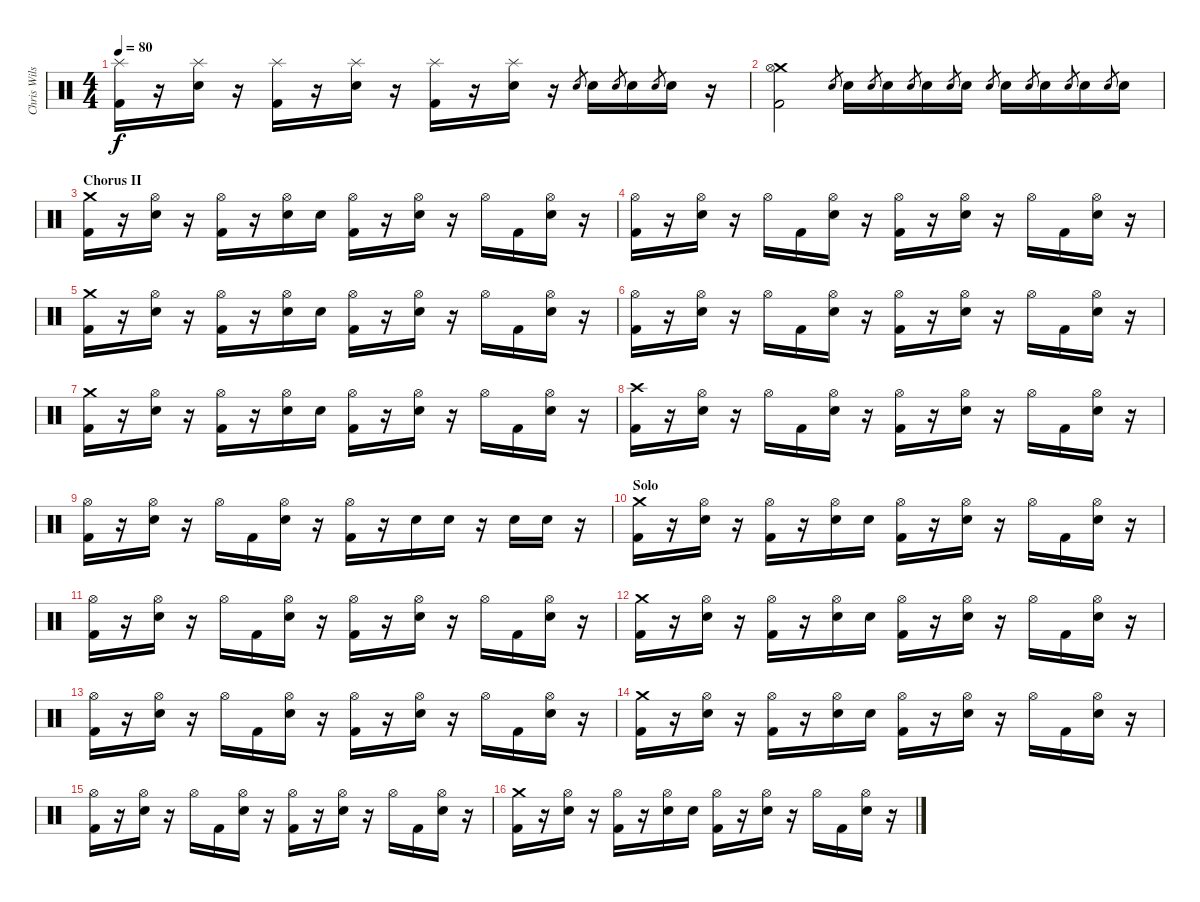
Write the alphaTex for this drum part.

\track ("Chris Wilson - Drums" "Chris Wils") {instrument percussion}
\staff {score}
\articulation defaults
\ts (4 4)
\tempo 80
\clef neutral
\ks c
("Splash (hit)" "Kick (hit) 2").16{dy f} r.16 ("Splash (hit)" "Snare (hit) 2").16 r.16 ("Splash (hit)" "Kick (hit) 2").16 r.16 ("Splash (hit)" "Snare (hit) 2").16 r.16 ("Splash (hit)" "Kick (hit) 2").16 r.16 ("Splash (hit)" "Snare (hit) 2").16 r.16 "Snare (hit) 2".8{gr} "Snare (hit) 2".16 "Snare (hit) 2".8{gr} "Snare (hit) 2".16 "Snare (hit) 2".8{gr} "Snare (hit) 2".16 r.16{volume 6} |
("Crash medium (hit)" "Hi-Hat (open)" "Kick (hit) 2").2{volume 15} "Snare (hit) 2".8{gr} "Snare (hit) 2".16 "Snare (hit) 2".8{gr} "Snare (hit) 2".16 "Snare (hit) 2".8{gr} "Snare (hit) 2".16 "Snare (hit) 2".8{gr} "Snare (hit) 2".16 "Snare (hit) 2".8{gr} "Snare (hit) 2".16 "Snare (hit) 2".8{gr} "Snare (hit) 2".16 "Snare (hit) 2".8{gr} "Snare (hit) 2".16 "Snare (hit) 2".8{gr} "Snare (hit) 2".16 |
\section ("" "Chorus II")
("Crash medium (hit)" "Kick (hit) 2").16 r.16 ("Hi-Hat (open)" "Snare (hit) 2").16 r.16 ("Hi-Hat (open)" "Kick (hit) 2").16 r.16 ("Hi-Hat (open)" "Snare (hit) 2").16 "Snare (hit) 2".16 ("Hi-Hat (open)" "Kick (hit) 2").16 r.16 ("Hi-Hat (open)" "Snare (hit) 2").16 r.16 "Hi-Hat (open)".16 "Kick (hit) 2".16 ("Hi-Hat (open)" "Snare (hit) 2").16 r.16 |
("Hi-Hat (open)" "Kick (hit) 2").16 r.16 ("Hi-Hat (open)" "Snare (hit) 2").16 r.16 "Hi-Hat (open)".16 "Kick (hit) 2".16 ("Hi-Hat (open)" "Snare (hit) 2").16 r.16 ("Hi-Hat (open)" "Kick (hit) 2").16 r.16 ("Hi-Hat (open)" "Snare (hit) 2").16 r.16 "Hi-Hat (open)".16 "Kick (hit) 2".16 ("Hi-Hat (open)" "Snare (hit) 2").16 r.16 |
("Crash medium (hit)" "Kick (hit) 2").16 r.16 ("Hi-Hat (open)" "Snare (hit) 2").16 r.16 ("Hi-Hat (open)" "Kick (hit) 2").16 r.16 ("Hi-Hat (open)" "Snare (hit) 2").16 "Snare (hit) 2".16 ("Hi-Hat (open)" "Kick (hit) 2").16 r.16 ("Hi-Hat (open)" "Snare (hit) 2").16 r.16 "Hi-Hat (open)".16 "Kick (hit) 2".16 ("Hi-Hat (open)" "Snare (hit) 2").16 r.16 |
("Hi-Hat (open)" "Kick (hit) 2").16 r.16 ("Hi-Hat (open)" "Snare (hit) 2").16 r.16 "Hi-Hat (open)".16 "Kick (hit) 2".16 ("Hi-Hat (open)" "Snare (hit) 2").16 r.16 ("Hi-Hat (open)" "Kick (hit) 2").16 r.16 ("Hi-Hat (open)" "Snare (hit) 2").16 r.16 "Hi-Hat (open)".16 "Kick (hit) 2".16 ("Hi-Hat (open)" "Snare (hit) 2").16 r.16 |
("Crash medium (hit)" "Kick (hit) 2").16 r.16 ("Hi-Hat (open)" "Snare (hit) 2").16 r.16 ("Hi-Hat (open)" "Kick (hit) 2").16 r.16 ("Hi-Hat (open)" "Snare (hit) 2").16 "Snare (hit) 2".16 ("Hi-Hat (open)" "Kick (hit) 2").16 r.16 ("Hi-Hat (open)" "Snare (hit) 2").16 r.16 "Hi-Hat (open)".16 "Kick (hit) 2".16 ("Hi-Hat (open)" "Snare (hit) 2").16 r.16 |
("Crash high (hit)" "Kick (hit) 2").16 r.16 ("Hi-Hat (open)" "Snare (hit) 2").16 r.16 "Hi-Hat (open)".16 "Kick (hit) 2".16 ("Hi-Hat (open)" "Snare (hit) 2").16 r.16 ("Hi-Hat (open)" "Kick (hit) 2").16 r.16 ("Hi-Hat (open)" "Snare (hit) 2").16 r.16 "Hi-Hat (open)".16 "Kick (hit) 2".16 ("Hi-Hat (open)" "Snare (hit) 2").16 r.16 |
("Hi-Hat (open)" "Kick (hit) 2").16 r.16 ("Hi-Hat (open)" "Snare (hit) 2").16 r.16 "Hi-Hat (open)".16 "Kick (hit) 2".16 ("Hi-Hat (open)" "Snare (hit) 2").16 r.16 ("Hi-Hat (open)" "Kick (hit) 2").16 r.16 "Snare (hit) 2".16 "Snare (hit) 2".16 r.16 "Snare (hit) 2".16 "Snare (hit) 2".16 r.16 |
\section ("" "Solo")
("Crash medium (hit)" "Kick (hit) 2").16 r.16 ("Hi-Hat (open)" "Snare (hit) 2").16 r.16 ("Hi-Hat (open)" "Kick (hit) 2").16 r.16 ("Hi-Hat (open)" "Snare (hit) 2").16 "Snare (hit) 2".16 ("Hi-Hat (open)" "Kick (hit) 2").16 r.16 ("Hi-Hat (open)" "Snare (hit) 2").16 r.16 "Hi-Hat (open)".16 "Kick (hit) 2".16 ("Hi-Hat (open)" "Snare (hit) 2").16 r.16 |
("Hi-Hat (open)" "Kick (hit) 2").16 r.16 ("Hi-Hat (open)" "Snare (hit) 2").16 r.16 "Hi-Hat (open)".16 "Kick (hit) 2".16 ("Hi-Hat (open)" "Snare (hit) 2").16 r.16 ("Hi-Hat (open)" "Kick (hit) 2").16 r.16 ("Hi-Hat (open)" "Snare (hit) 2").16 r.16 "Hi-Hat (open)".16 "Kick (hit) 2".16 ("Hi-Hat (open)" "Snare (hit) 2").16 r.16 |
("Crash medium (hit)" "Kick (hit) 2").16 r.16 ("Hi-Hat (open)" "Snare (hit) 2").16 r.16 ("Hi-Hat (open)" "Kick (hit) 2").16 r.16 ("Hi-Hat (open)" "Snare (hit) 2").16 "Snare (hit) 2".16 ("Hi-Hat (open)" "Kick (hit) 2").16 r.16 ("Hi-Hat (open)" "Snare (hit) 2").16 r.16 "Hi-Hat (open)".16 "Kick (hit) 2".16 ("Hi-Hat (open)" "Snare (hit) 2").16 r.16 |
("Hi-Hat (open)" "Kick (hit) 2").16 r.16 ("Hi-Hat (open)" "Snare (hit) 2").16 r.16 "Hi-Hat (open)".16 "Kick (hit) 2".16 ("Hi-Hat (open)" "Snare (hit) 2").16 r.16 ("Hi-Hat (open)" "Kick (hit) 2").16 r.16 ("Hi-Hat (open)" "Snare (hit) 2").16 r.16 "Hi-Hat (open)".16 "Kick (hit) 2".16 ("Hi-Hat (open)" "Snare (hit) 2").16 r.16 |
("Crash medium (hit)" "Kick (hit) 2").16 r.16 ("Hi-Hat (open)" "Snare (hit) 2").16 r.16 ("Hi-Hat (open)" "Kick (hit) 2").16 r.16 ("Hi-Hat (open)" "Snare (hit) 2").16 "Snare (hit) 2".16 ("Hi-Hat (open)" "Kick (hit) 2").16 r.16 ("Hi-Hat (open)" "Snare (hit) 2").16 r.16 "Hi-Hat (open)".16 "Kick (hit) 2".16 ("Hi-Hat (open)" "Snare (hit) 2").16 r.16 |
("Hi-Hat (open)" "Kick (hit) 2").16 r.16 ("Hi-Hat (open)" "Snare (hit) 2").16 r.16 "Hi-Hat (open)".16 "Kick (hit) 2".16 ("Hi-Hat (open)" "Snare (hit) 2").16 r.16 ("Hi-Hat (open)" "Kick (hit) 2").16 r.16 ("Hi-Hat (open)" "Snare (hit) 2").16 r.16 "Hi-Hat (open)".16 "Kick (hit) 2".16 ("Hi-Hat (open)" "Snare (hit) 2").16 r.16 |
("Crash medium (hit)" "Kick (hit) 2").16 r.16 ("Hi-Hat (open)" "Snare (hit) 2").16 r.16 ("Hi-Hat (open)" "Kick (hit) 2").16 r.16 ("Hi-Hat (open)" "Snare (hit) 2").16 "Snare (hit) 2".16 ("Hi-Hat (open)" "Kick (hit) 2").16 r.16 ("Hi-Hat (open)" "Snare (hit) 2").16 r.16 "Hi-Hat (open)".16 "Kick (hit) 2".16 ("Hi-Hat (open)" "Snare (hit) 2").16 r.16
